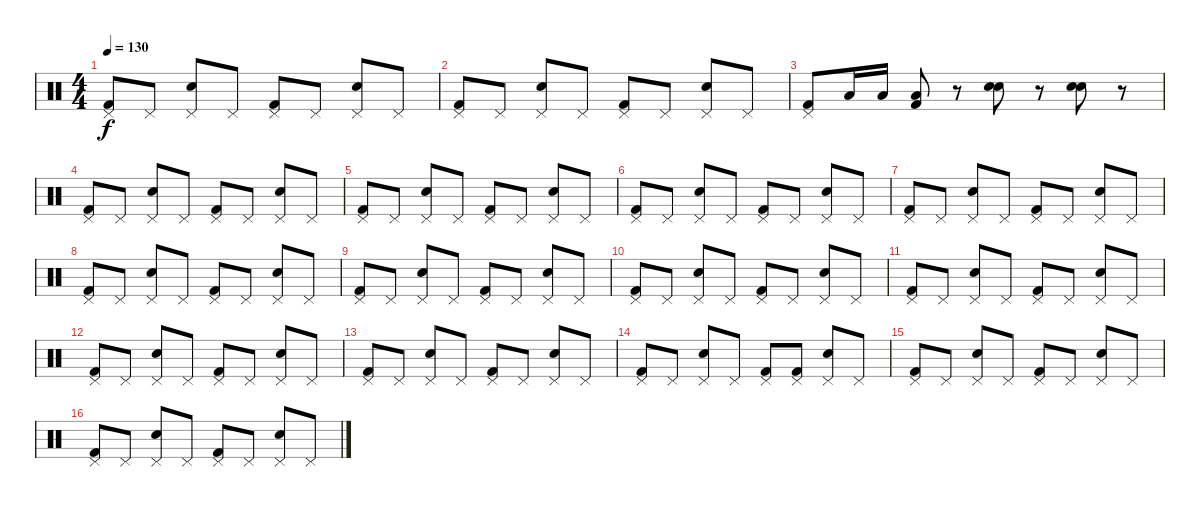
\track "" {instrument percussion}
\staff {score}
\articulation defaults
\ts (4 4)
\tempo 130
\clef neutral
\ks c
("Kick (hit) 2" "Pedal Hi-Hat (hit)").8{dy f} "Pedal Hi-Hat (hit)".8 ("Electric Snare (hit)" "Pedal Hi-Hat (hit)").8 "Pedal Hi-Hat (hit)".8 ("Kick (hit) 2" "Pedal Hi-Hat (hit)").8 "Pedal Hi-Hat (hit)".8 ("Electric Snare (hit)" "Pedal Hi-Hat (hit)").8 "Pedal Hi-Hat (hit)".8 |
("Kick (hit) 2" "Pedal Hi-Hat (hit)").8 "Pedal Hi-Hat (hit)".8 ("Electric Snare (hit)" "Pedal Hi-Hat (hit)").8 "Pedal Hi-Hat (hit)".8 ("Kick (hit) 2" "Pedal Hi-Hat (hit)").8 "Pedal Hi-Hat (hit)".8 ("Electric Snare (hit)" "Pedal Hi-Hat (hit)").8 "Pedal Hi-Hat (hit)".8 |
("Kick (hit) 2" "Pedal Hi-Hat (hit)").8 "Low Floor Tom (hit)".16 "Low Floor Tom (hit)".16 ("Low Floor Tom (hit)" "Kick (hit) 2").8 r.8 ("Electric Snare (hit)" "Electric Snare (hit)").8 r.8 ("Electric Snare (hit)" "Electric Snare (hit)").8 r.8 |
("Kick (hit) 2" "Pedal Hi-Hat (hit)").8 "Pedal Hi-Hat (hit)".8 ("Electric Snare (hit)" "Pedal Hi-Hat (hit)").8 "Pedal Hi-Hat (hit)".8 ("Kick (hit) 2" "Pedal Hi-Hat (hit)").8 "Pedal Hi-Hat (hit)".8 ("Electric Snare (hit)" "Pedal Hi-Hat (hit)").8 "Pedal Hi-Hat (hit)".8 |
("Kick (hit) 2" "Pedal Hi-Hat (hit)").8 "Pedal Hi-Hat (hit)".8 ("Electric Snare (hit)" "Pedal Hi-Hat (hit)").8 "Pedal Hi-Hat (hit)".8 ("Kick (hit) 2" "Pedal Hi-Hat (hit)").8 "Pedal Hi-Hat (hit)".8 ("Electric Snare (hit)" "Pedal Hi-Hat (hit)").8 "Pedal Hi-Hat (hit)".8 |
("Kick (hit) 2" "Pedal Hi-Hat (hit)").8 "Pedal Hi-Hat (hit)".8 ("Electric Snare (hit)" "Pedal Hi-Hat (hit)").8 "Pedal Hi-Hat (hit)".8 ("Kick (hit) 2" "Pedal Hi-Hat (hit)").8 "Pedal Hi-Hat (hit)".8 ("Electric Snare (hit)" "Pedal Hi-Hat (hit)").8 "Pedal Hi-Hat (hit)".8 |
("Kick (hit) 2" "Pedal Hi-Hat (hit)").8 "Pedal Hi-Hat (hit)".8 ("Electric Snare (hit)" "Pedal Hi-Hat (hit)").8 "Pedal Hi-Hat (hit)".8 ("Kick (hit) 2" "Pedal Hi-Hat (hit)").8 "Pedal Hi-Hat (hit)".8 ("Electric Snare (hit)" "Pedal Hi-Hat (hit)").8 "Pedal Hi-Hat (hit)".8 |
("Kick (hit) 2" "Pedal Hi-Hat (hit)").8 "Pedal Hi-Hat (hit)".8 ("Electric Snare (hit)" "Pedal Hi-Hat (hit)").8 "Pedal Hi-Hat (hit)".8 ("Kick (hit) 2" "Pedal Hi-Hat (hit)").8 "Pedal Hi-Hat (hit)".8 ("Electric Snare (hit)" "Pedal Hi-Hat (hit)").8 "Pedal Hi-Hat (hit)".8 |
("Kick (hit) 2" "Pedal Hi-Hat (hit)").8 "Pedal Hi-Hat (hit)".8 ("Electric Snare (hit)" "Pedal Hi-Hat (hit)").8 "Pedal Hi-Hat (hit)".8 ("Kick (hit) 2" "Pedal Hi-Hat (hit)").8 "Pedal Hi-Hat (hit)".8 ("Electric Snare (hit)" "Pedal Hi-Hat (hit)").8 "Pedal Hi-Hat (hit)".8 |
("Kick (hit) 2" "Pedal Hi-Hat (hit)").8 "Pedal Hi-Hat (hit)".8 ("Electric Snare (hit)" "Pedal Hi-Hat (hit)").8 "Pedal Hi-Hat (hit)".8 ("Kick (hit) 2" "Pedal Hi-Hat (hit)").8 "Pedal Hi-Hat (hit)".8 ("Electric Snare (hit)" "Pedal Hi-Hat (hit)").8 "Pedal Hi-Hat (hit)".8 |
("Kick (hit) 2" "Pedal Hi-Hat (hit)").8 "Pedal Hi-Hat (hit)".8 ("Electric Snare (hit)" "Pedal Hi-Hat (hit)").8 "Pedal Hi-Hat (hit)".8 ("Kick (hit) 2" "Pedal Hi-Hat (hit)").8 "Pedal Hi-Hat (hit)".8 ("Electric Snare (hit)" "Pedal Hi-Hat (hit)").8 "Pedal Hi-Hat (hit)".8 |
("Kick (hit) 2" "Pedal Hi-Hat (hit)").8 "Pedal Hi-Hat (hit)".8 ("Electric Snare (hit)" "Pedal Hi-Hat (hit)").8 "Pedal Hi-Hat (hit)".8 ("Kick (hit) 2" "Pedal Hi-Hat (hit)").8 "Pedal Hi-Hat (hit)".8 ("Electric Snare (hit)" "Pedal Hi-Hat (hit)").8 "Pedal Hi-Hat (hit)".8 |
("Kick (hit) 2" "Pedal Hi-Hat (hit)").8 "Pedal Hi-Hat (hit)".8 ("Electric Snare (hit)" "Pedal Hi-Hat (hit)").8 "Pedal Hi-Hat (hit)".8 ("Kick (hit) 2" "Pedal Hi-Hat (hit)").8 "Pedal Hi-Hat (hit)".8 ("Electric Snare (hit)" "Pedal Hi-Hat (hit)").8 "Pedal Hi-Hat (hit)".8 |
("Kick (hit) 2" "Pedal Hi-Hat (hit)").8 "Pedal Hi-Hat (hit)".8 ("Electric Snare (hit)" "Pedal Hi-Hat (hit)").8 "Pedal Hi-Hat (hit)".8 ("Kick (hit) 2" "Pedal Hi-Hat (hit)").8 ("Kick (hit) 2" "Pedal Hi-Hat (hit)").8 ("Electric Snare (hit)" "Pedal Hi-Hat (hit)").8 "Pedal Hi-Hat (hit)".8 |
("Kick (hit) 2" "Pedal Hi-Hat (hit)").8 "Pedal Hi-Hat (hit)".8 ("Electric Snare (hit)" "Pedal Hi-Hat (hit)").8 "Pedal Hi-Hat (hit)".8 ("Kick (hit) 2" "Pedal Hi-Hat (hit)").8 "Pedal Hi-Hat (hit)".8 ("Electric Snare (hit)" "Pedal Hi-Hat (hit)").8 "Pedal Hi-Hat (hit)".8 |
("Kick (hit) 2" "Pedal Hi-Hat (hit)").8 "Pedal Hi-Hat (hit)".8 ("Electric Snare (hit)" "Pedal Hi-Hat (hit)").8 "Pedal Hi-Hat (hit)".8 ("Kick (hit) 2" "Pedal Hi-Hat (hit)").8 "Pedal Hi-Hat (hit)".8 ("Electric Snare (hit)" "Pedal Hi-Hat (hit)").8 "Pedal Hi-Hat (hit)".8
